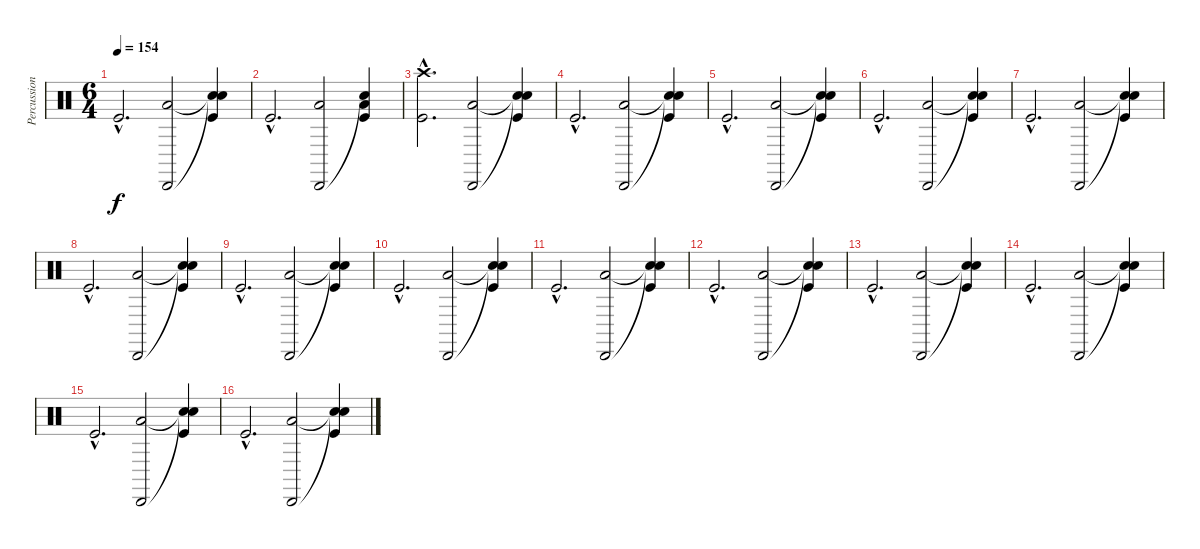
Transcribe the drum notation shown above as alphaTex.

\track ("Percussions" "Percussion") {instrument percussion}
\staff {score}
\articulation defaults
\ts (6 4)
\tempo 154
\clef neutral
\ks c "Kick (hit)"{hac}.2{d dy f}
("Cabasa (hit)" "Low Tom (hit)").2 ("Snare (hit)"{t} "Snare (hit)"{t} "Kick (hit)").4 |
"Kick (hit)"{hac}.2{d} ("Cabasa (hit)" "Low Tom (hit)").2 ("Snare (hit)"{t} "Low Tom (hit)" "Kick (hit)").4 |
("Crash high (hit)"{hac} "Kick (hit)"{hac}).2{d} ("Cabasa (hit)" "Low Tom (hit)").2 ("Snare (hit)"{t} "Snare (hit)"{t} "Kick (hit)").4 |
"Kick (hit)"{hac}.2{d} ("Cabasa (hit)" "Low Tom (hit)").2 ("Snare (hit)"{t} "Snare (hit)"{t} "Kick (hit)").4 |
"Kick (hit)"{hac}.2{d} ("Cabasa (hit)" "Low Tom (hit)").2 ("Snare (hit)"{t} "Snare (hit)"{t} "Kick (hit)").4 |
"Kick (hit)"{hac}.2{d} ("Cabasa (hit)" "Low Tom (hit)").2 ("Snare (hit)"{t} "Snare (hit)"{t} "Kick (hit)").4 |
"Kick (hit)"{hac}.2{d} ("Cabasa (hit)" "Low Tom (hit)").2 ("Snare (hit)"{t} "Snare (hit)"{t} "Kick (hit)").4 |
"Kick (hit)"{hac}.2{d} ("Cabasa (hit)" "Low Tom (hit)").2 ("Snare (hit)"{t} "Snare (hit)"{t} "Kick (hit)").4 |
"Kick (hit)"{hac}.2{d} ("Cabasa (hit)" "Low Tom (hit)").2 ("Snare (hit)"{t} "Snare (hit)"{t} "Kick (hit)").4 |
"Kick (hit)"{hac}.2{d} ("Cabasa (hit)" "Low Tom (hit)").2 ("Snare (hit)"{t} "Snare (hit)"{t} "Kick (hit)").4 |
"Kick (hit)"{hac}.2{d} ("Cabasa (hit)" "Low Tom (hit)").2 ("Snare (hit)"{t} "Snare (hit)"{t} "Kick (hit)").4 |
"Kick (hit)"{hac}.2{d} ("Cabasa (hit)" "Low Tom (hit)").2 ("Snare (hit)"{t} "Snare (hit)"{t} "Kick (hit)").4 |
"Kick (hit)"{hac}.2{d} ("Cabasa (hit)" "Low Tom (hit)").2 ("Snare (hit)"{t} "Snare (hit)"{t} "Kick (hit)").4 |
"Kick (hit)"{hac}.2{d} ("Cabasa (hit)" "Low Tom (hit)").2 ("Snare (hit)"{t} "Snare (hit)"{t} "Kick (hit)").4 |
"Kick (hit)"{hac}.2{d} ("Cabasa (hit)" "Low Tom (hit)").2 ("Snare (hit)"{t} "Snare (hit)"{t} "Kick (hit)").4 |
"Kick (hit)"{hac}.2{d} ("Cabasa (hit)" "Low Tom (hit)").2 ("Snare (hit)"{t} "Snare (hit)"{t} "Kick (hit)").4
